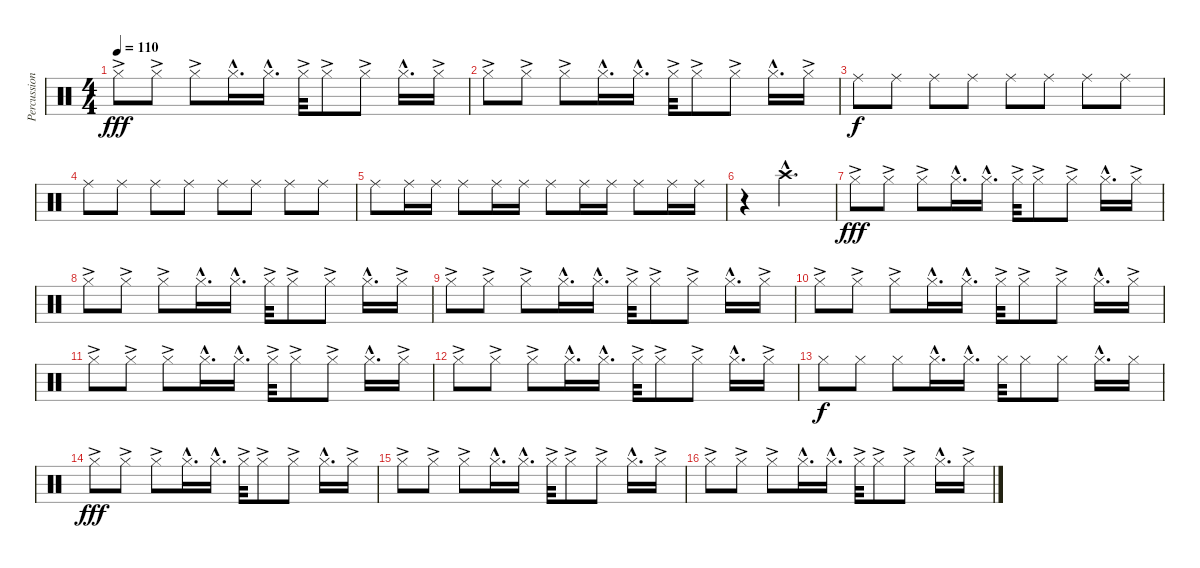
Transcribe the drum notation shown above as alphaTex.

\track ("Percussion" "Percussion") {instrument percussion}
\staff {score}
\articulation defaults
\ts (4 4)
\tempo 110
\clef neutral
\ks c "Hi-Hat (closed)"{ac}.8{dy fff} "Hi-Hat (closed)"{ac}.8 "Hi-Hat (closed)"{ac}.8 "Hi-Hat (closed)"{hac}.16{d} "Hi-Hat (closed)"{hac}.16{d} "Hi-Hat (closed)"{ac}.32 "Hi-Hat (closed)"{ac}.8 "Hi-Hat (closed)"{ac}.8 "Hi-Hat (closed)"{hac}.16{d} "Hi-Hat (closed)"{ac}.16
|
"Hi-Hat (closed)"{ac}.8 "Hi-Hat (closed)"{ac}.8 "Hi-Hat (closed)"{ac}.8 "Hi-Hat (closed)"{hac}.16{d} "Hi-Hat (closed)"{hac}.16{d} "Hi-Hat (closed)"{ac}.32 "Hi-Hat (closed)"{ac}.8 "Hi-Hat (closed)"{ac}.8 "Hi-Hat (closed)"{hac}.16{d} "Hi-Hat (closed)"{ac}.16 |
"Ride (middle)".8{dy f} "Ride (middle)".8 "Ride (middle)".8 "Ride (middle)".8 "Ride (middle)".8 "Ride (middle)".8 "Ride (middle)".8 "Ride (middle)".8 |
"Ride (middle)".8 "Ride (middle)".8 "Ride (middle)".8 "Ride (middle)".8 "Ride (middle)".8 "Ride (middle)".8 "Ride (middle)".8 "Ride (middle)".8 |
"Ride (middle)".8 "Ride (middle)".16 "Ride (middle)".16 "Ride (middle)".8 "Ride (middle)".16 "Ride (middle)".16 "Ride (middle)".8 "Ride (middle)".16 "Ride (middle)".16 "Ride (middle)".8 "Ride (middle)".16 "Ride (middle)".16 |
r.4 "Crash high (hit)"{hac}.2{d} |
"Hi-Hat (closed)"{ac}.8{dy fff} "Hi-Hat (closed)"{ac}.8 "Hi-Hat (closed)"{ac}.8 "Hi-Hat (closed)"{hac}.16{d} "Hi-Hat (closed)"{hac}.16{d} "Hi-Hat (closed)"{ac}.32 "Hi-Hat (closed)"{ac}.8 "Hi-Hat (closed)"{ac}.8 "Hi-Hat (closed)"{hac}.16{d} "Hi-Hat (closed)"{ac}.16 |
"Hi-Hat (closed)"{ac}.8 "Hi-Hat (closed)"{ac}.8 "Hi-Hat (closed)"{ac}.8 "Hi-Hat (closed)"{hac}.16{d} "Hi-Hat (closed)"{hac}.16{d} "Hi-Hat (closed)"{ac}.32 "Hi-Hat (closed)"{ac}.8 "Hi-Hat (closed)"{ac}.8 "Hi-Hat (closed)"{hac}.16{d} "Hi-Hat (closed)"{ac}.16 |
"Hi-Hat (closed)"{ac}.8 "Hi-Hat (closed)"{ac}.8 "Hi-Hat (closed)"{ac}.8 "Hi-Hat (closed)"{hac}.16{d} "Hi-Hat (closed)"{hac}.16{d} "Hi-Hat (closed)"{ac}.32 "Hi-Hat (closed)"{ac}.8 "Hi-Hat (closed)"{ac}.8 "Hi-Hat (closed)"{hac}.16{d} "Hi-Hat (closed)"{ac}.16 |
"Hi-Hat (closed)"{ac}.8 "Hi-Hat (closed)"{ac}.8 "Hi-Hat (closed)"{ac}.8 "Hi-Hat (closed)"{hac}.16{d} "Hi-Hat (closed)"{hac}.16{d} "Hi-Hat (closed)"{ac}.32 "Hi-Hat (closed)"{ac}.8 "Hi-Hat (closed)"{ac}.8 "Hi-Hat (closed)"{hac}.16{d} "Hi-Hat (closed)"{ac}.16 |
"Hi-Hat (closed)"{ac}.8 "Hi-Hat (closed)"{ac}.8 "Hi-Hat (closed)"{ac}.8 "Hi-Hat (closed)"{hac}.16{d} "Hi-Hat (closed)"{hac}.16{d} "Hi-Hat (closed)"{ac}.32 "Hi-Hat (closed)"{ac}.8 "Hi-Hat (closed)"{ac}.8 "Hi-Hat (closed)"{hac}.16{d} "Hi-Hat (closed)"{ac}.16 |
"Hi-Hat (closed)"{ac}.8 "Hi-Hat (closed)"{ac}.8 "Hi-Hat (closed)"{ac}.8 "Hi-Hat (closed)"{hac}.16{d} "Hi-Hat (closed)"{hac}.16{d} "Hi-Hat (closed)"{ac}.32 "Hi-Hat (closed)"{ac}.8 "Hi-Hat (closed)"{ac}.8 "Hi-Hat (closed)"{hac}.16{d} "Hi-Hat (closed)"{ac}.16 |
"Hi-Hat (closed)".8{dy f} "Hi-Hat (closed)".8 "Hi-Hat (closed)".8 "Hi-Hat (closed)"{hac}.16{d} "Hi-Hat (closed)"{hac}.16{d} "Hi-Hat (closed)".32 "Hi-Hat (closed)".8 "Hi-Hat (closed)".8 "Hi-Hat (closed)"{hac}.16{d} "Hi-Hat (closed)".16 |
"Hi-Hat (closed)"{ac}.8{dy fff} "Hi-Hat (closed)"{ac}.8 "Hi-Hat (closed)"{ac}.8 "Hi-Hat (closed)"{hac}.16{d} "Hi-Hat (closed)"{hac}.16{d} "Hi-Hat (closed)"{ac}.32 "Hi-Hat (closed)"{ac}.8 "Hi-Hat (closed)"{ac}.8 "Hi-Hat (closed)"{hac}.16{d} "Hi-Hat (closed)"{ac}.16 |
"Hi-Hat (closed)"{ac}.8 "Hi-Hat (closed)"{ac}.8 "Hi-Hat (closed)"{ac}.8 "Hi-Hat (closed)"{hac}.16{d} "Hi-Hat (closed)"{hac}.16{d} "Hi-Hat (closed)"{ac}.32 "Hi-Hat (closed)"{ac}.8 "Hi-Hat (closed)"{ac}.8 "Hi-Hat (closed)"{hac}.16{d} "Hi-Hat (closed)"{ac}.16 |
"Hi-Hat (closed)"{ac}.8 "Hi-Hat (closed)"{ac}.8 "Hi-Hat (closed)"{ac}.8 "Hi-Hat (closed)"{hac}.16{d} "Hi-Hat (closed)"{hac}.16{d} "Hi-Hat (closed)"{ac}.32 "Hi-Hat (closed)"{ac}.8 "Hi-Hat (closed)"{ac}.8 "Hi-Hat (closed)"{hac}.16{d} "Hi-Hat (closed)"{ac}.16
